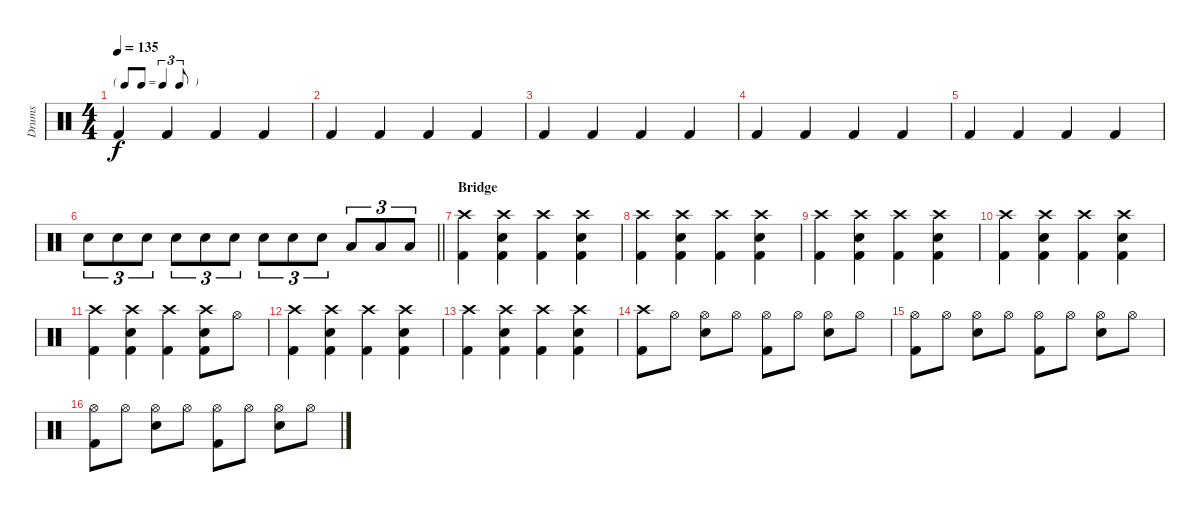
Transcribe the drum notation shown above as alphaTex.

\track ("Drums" "Drums") {instrument percussion}
\staff {score}
\articulation defaults
\ts (4 4)
\tf triplet8th
\tempo 135
\clef neutral
\ks c "Kick (hit) 2".4{dy f} "Kick (hit) 2".4 "Kick (hit) 2".4 "Kick (hit) 2".4
|
"Kick (hit) 2".4 "Kick (hit) 2".4 "Kick (hit) 2".4 "Kick (hit) 2".4 |
"Kick (hit) 2".4 "Kick (hit) 2".4 "Kick (hit) 2".4 "Kick (hit) 2".4 |
"Kick (hit) 2".4 "Kick (hit) 2".4 "Kick (hit) 2".4 "Kick (hit) 2".4 |
"Kick (hit) 2".4 "Kick (hit) 2".4 "Kick (hit) 2".4 "Kick (hit) 2".4 |
\barLineRight lightlight "Snare (hit) 2".8{tu (3 2)} "Snare (hit) 2".8{tu (3 2)} "Snare (hit) 2".8{tu (3 2)} "Snare (hit) 2".8{tu (3 2)} "Snare (hit) 2".8{tu (3 2)} "Snare (hit) 2".8{tu (3 2)} "Snare (hit) 2".8{tu (3 2)} "Snare (hit) 2".8{tu (3 2)} "Snare (hit) 2".8{tu (3 2)} "Low Tom (hit)".8{tu (3 2)} "Low Tom (hit)".8{tu (3 2)} "Low Tom (hit)".8{tu (3 2)}
|
\section ("" "Bridge")
("Crash high (hit)" "Kick (hit) 2").4 ("Crash high (hit)" "Snare (hit) 2" "Kick (hit) 2").4 ("Crash high (hit)" "Kick (hit) 2").4 ("Crash high (hit)" "Snare (hit) 2" "Kick (hit) 2").4 |
("Crash high (hit)" "Kick (hit) 2").4 ("Crash high (hit)" "Snare (hit) 2" "Kick (hit) 2").4 ("Crash high (hit)" "Kick (hit) 2").4 ("Crash high (hit)" "Snare (hit) 2" "Kick (hit) 2").4 |
("Crash high (hit)" "Kick (hit) 2").4 ("Crash high (hit)" "Snare (hit) 2" "Kick (hit) 2").4 ("Crash high (hit)" "Kick (hit) 2").4 ("Crash high (hit)" "Snare (hit) 2" "Kick (hit) 2").4 |
("Crash high (hit)" "Kick (hit) 2").4 ("Crash high (hit)" "Snare (hit) 2" "Kick (hit) 2").4 ("Crash high (hit)" "Kick (hit) 2").4 ("Crash high (hit)" "Snare (hit) 2" "Kick (hit) 2").4 |
("Crash high (hit)" "Kick (hit) 2").4 ("Crash high (hit)" "Snare (hit) 2" "Kick (hit) 2").4 ("Crash high (hit)" "Kick (hit) 2").4 ("Crash high (hit)" "Snare (hit) 2" "Kick (hit) 2").8 "Hi-Hat (open)".8 |
("Crash high (hit)" "Kick (hit) 2").4 ("Crash high (hit)" "Snare (hit) 2" "Kick (hit) 2").4 ("Crash high (hit)" "Kick (hit) 2").4 ("Crash high (hit)" "Snare (hit) 2" "Kick (hit) 2").4 |
("Crash high (hit)" "Kick (hit) 2").4 ("Crash high (hit)" "Snare (hit) 2" "Kick (hit) 2").4 ("Crash high (hit)" "Kick (hit) 2").4 ("Crash high (hit)" "Snare (hit) 2" "Kick (hit) 2").4 |
("Crash high (hit)" "Kick (hit) 2").8 "Hi-Hat (open)".8 ("Hi-Hat (open)" "Snare (hit) 2").8 "Hi-Hat (open)".8 ("Hi-Hat (open)" "Kick (hit) 2").8 "Hi-Hat (open)".8 ("Hi-Hat (open)" "Snare (hit) 2").8 "Hi-Hat (open)".8 |
("Hi-Hat (open)" "Kick (hit) 2").8 "Hi-Hat (open)".8 ("Hi-Hat (open)" "Snare (hit) 2").8 "Hi-Hat (open)".8 ("Hi-Hat (open)" "Kick (hit) 2").8 "Hi-Hat (open)".8 ("Hi-Hat (open)" "Snare (hit) 2").8 "Hi-Hat (open)".8 |
("Hi-Hat (open)" "Kick (hit) 2").8 "Hi-Hat (open)".8 ("Hi-Hat (open)" "Snare (hit) 2").8 "Hi-Hat (open)".8 ("Hi-Hat (open)" "Kick (hit) 2").8 "Hi-Hat (open)".8 ("Hi-Hat (open)" "Snare (hit) 2").8 "Hi-Hat (open)".8
